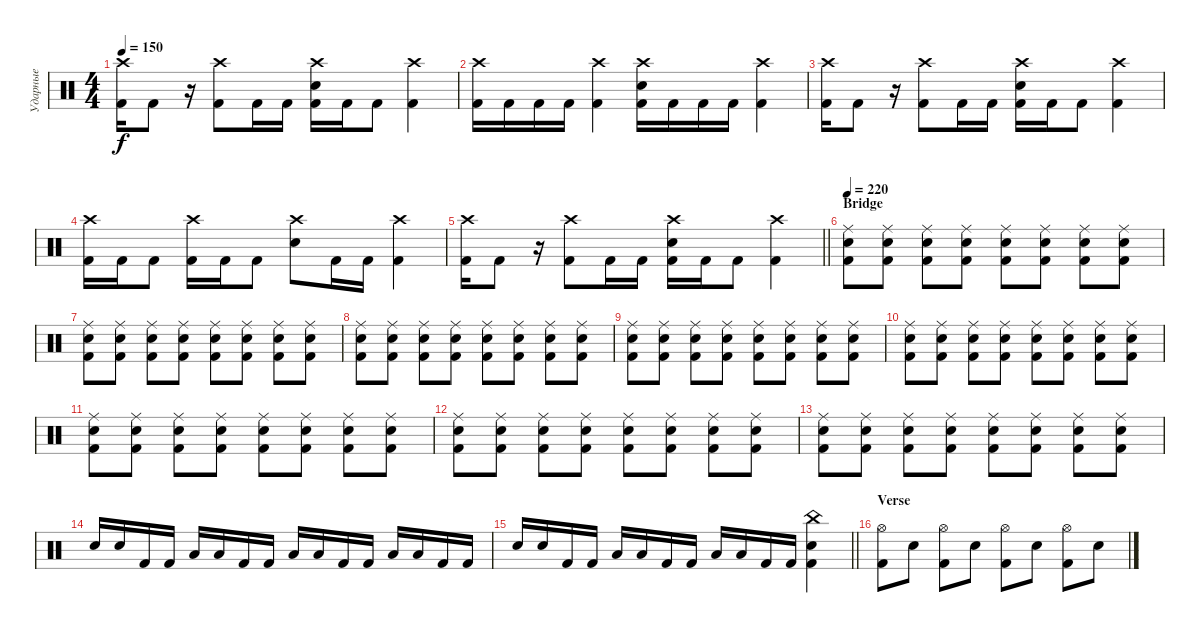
\track ("Ударные" "Ударные") {instrument percussion}
\staff {score}
\articulation defaults
\ts (4 4)
\tempo 150
\clef neutral
\ks c
("Crash high (hit)" "Kick (hit) 2").16{dy f} "Kick (hit) 2".8 r.16 ("Crash high (hit)" "Kick (hit) 2").8 "Kick (hit) 2".16 "Kick (hit) 2".16 ("Crash high (hit)" "Electric Snare (hit)" "Kick (hit) 2").16 "Kick (hit) 2".16 "Kick (hit) 2".8 ("Crash high (hit)" "Kick (hit) 2").4 |
("Crash high (hit)" "Kick (hit) 2").16 "Kick (hit) 2".16 "Kick (hit) 2".16 "Kick (hit) 2".16 ("Crash high (hit)" "Kick (hit) 2").4 ("Crash high (hit)" "Electric Snare (hit)" "Kick (hit) 2").16 "Kick (hit) 2".16 "Kick (hit) 2".16 "Kick (hit) 2".16 ("Crash high (hit)" "Kick (hit) 2").4 |
("Crash high (hit)" "Kick (hit) 2").16 "Kick (hit) 2".8 r.16 ("Crash high (hit)" "Kick (hit) 2").8 "Kick (hit) 2".16 "Kick (hit) 2".16 ("Crash high (hit)" "Electric Snare (hit)" "Kick (hit) 2").16 "Kick (hit) 2".16 "Kick (hit) 2".8 ("Crash high (hit)" "Kick (hit) 2").4 |
("Crash high (hit)" "Kick (hit) 2").16 "Kick (hit) 2".16 "Kick (hit) 2".8 ("Crash high (hit)" "Kick (hit) 2").16 "Kick (hit) 2".16 "Kick (hit) 2".8 ("Crash high (hit)" "Electric Snare (hit)").8 "Kick (hit) 2".16 "Kick (hit) 2".16 ("Crash high (hit)" "Kick (hit) 2").4 |
\barLineRight lightlight
("Crash high (hit)" "Kick (hit) 2").16 "Kick (hit) 2".8 r.16 ("Crash high (hit)" "Kick (hit) 2").8 "Kick (hit) 2".16 "Kick (hit) 2".16 ("Crash high (hit)" "Electric Snare (hit)" "Kick (hit) 2").16 "Kick (hit) 2".16 "Kick (hit) 2".8 ("Crash high (hit)" "Kick (hit) 2").4 |
\section ("" "Bridge")
\tempo 220
("Ride (middle)" "Electric Snare (hit)" "Kick (hit) 2").8 ("Ride (middle)" "Electric Snare (hit)" "Kick (hit) 2").8 ("Ride (middle)" "Electric Snare (hit)" "Kick (hit) 2").8 ("Ride (middle)" "Electric Snare (hit)" "Kick (hit) 2").8 ("Ride (middle)" "Electric Snare (hit)" "Kick (hit) 2").8 ("Ride (middle)" "Electric Snare (hit)" "Kick (hit) 2").8 ("Ride (middle)" "Electric Snare (hit)" "Kick (hit) 2").8 ("Ride (middle)" "Electric Snare (hit)" "Kick (hit) 2").8 |
("Ride (middle)" "Electric Snare (hit)" "Kick (hit) 2").8 ("Ride (middle)" "Electric Snare (hit)" "Kick (hit) 2").8 ("Ride (middle)" "Electric Snare (hit)" "Kick (hit) 2").8 ("Ride (middle)" "Electric Snare (hit)" "Kick (hit) 2").8 ("Ride (middle)" "Electric Snare (hit)" "Kick (hit) 2").8 ("Ride (middle)" "Electric Snare (hit)" "Kick (hit) 2").8 ("Ride (middle)" "Electric Snare (hit)" "Kick (hit) 2").8 ("Ride (middle)" "Electric Snare (hit)" "Kick (hit) 2").8 |
("Ride (middle)" "Electric Snare (hit)" "Kick (hit) 2").8 ("Ride (middle)" "Electric Snare (hit)" "Kick (hit) 2").8 ("Ride (middle)" "Electric Snare (hit)" "Kick (hit) 2").8 ("Ride (middle)" "Electric Snare (hit)" "Kick (hit) 2").8 ("Ride (middle)" "Electric Snare (hit)" "Kick (hit) 2").8 ("Ride (middle)" "Electric Snare (hit)" "Kick (hit) 2").8 ("Ride (middle)" "Electric Snare (hit)" "Kick (hit) 2").8 ("Ride (middle)" "Electric Snare (hit)" "Kick (hit) 2").8 |
("Ride (middle)" "Electric Snare (hit)" "Kick (hit) 2").8 ("Ride (middle)" "Electric Snare (hit)" "Kick (hit) 2").8 ("Ride (middle)" "Electric Snare (hit)" "Kick (hit) 2").8 ("Ride (middle)" "Electric Snare (hit)" "Kick (hit) 2").8 ("Ride (middle)" "Electric Snare (hit)" "Kick (hit) 2").8 ("Ride (middle)" "Electric Snare (hit)" "Kick (hit) 2").8 ("Ride (middle)" "Electric Snare (hit)" "Kick (hit) 2").8 ("Ride (middle)" "Electric Snare (hit)" "Kick (hit) 2").8 |
("Ride (middle)" "Electric Snare (hit)" "Kick (hit) 2").8 ("Ride (middle)" "Electric Snare (hit)" "Kick (hit) 2").8 ("Ride (middle)" "Electric Snare (hit)" "Kick (hit) 2").8 ("Ride (middle)" "Electric Snare (hit)" "Kick (hit) 2").8 ("Ride (middle)" "Electric Snare (hit)" "Kick (hit) 2").8 ("Ride (middle)" "Electric Snare (hit)" "Kick (hit) 2").8 ("Ride (middle)" "Electric Snare (hit)" "Kick (hit) 2").8 ("Ride (middle)" "Electric Snare (hit)" "Kick (hit) 2").8 |
("Ride (middle)" "Electric Snare (hit)" "Kick (hit) 2").8 ("Ride (middle)" "Electric Snare (hit)" "Kick (hit) 2").8 ("Ride (middle)" "Electric Snare (hit)" "Kick (hit) 2").8 ("Ride (middle)" "Electric Snare (hit)" "Kick (hit) 2").8 ("Ride (middle)" "Electric Snare (hit)" "Kick (hit) 2").8 ("Ride (middle)" "Electric Snare (hit)" "Kick (hit) 2").8 ("Ride (middle)" "Electric Snare (hit)" "Kick (hit) 2").8 ("Ride (middle)" "Electric Snare (hit)" "Kick (hit) 2").8 |
("Ride (middle)" "Electric Snare (hit)" "Kick (hit) 2").8 ("Ride (middle)" "Electric Snare (hit)" "Kick (hit) 2").8 ("Ride (middle)" "Electric Snare (hit)" "Kick (hit) 2").8 ("Ride (middle)" "Electric Snare (hit)" "Kick (hit) 2").8 ("Ride (middle)" "Electric Snare (hit)" "Kick (hit) 2").8 ("Ride (middle)" "Electric Snare (hit)" "Kick (hit) 2").8 ("Ride (middle)" "Electric Snare (hit)" "Kick (hit) 2").8 ("Ride (middle)" "Electric Snare (hit)" "Kick (hit) 2").8 |
("Ride (middle)" "Electric Snare (hit)" "Kick (hit) 2").8 ("Ride (middle)" "Electric Snare (hit)" "Kick (hit) 2").8 ("Ride (middle)" "Electric Snare (hit)" "Kick (hit) 2").8 ("Ride (middle)" "Electric Snare (hit)" "Kick (hit) 2").8 ("Ride (middle)" "Electric Snare (hit)" "Kick (hit) 2").8 ("Ride (middle)" "Electric Snare (hit)" "Kick (hit) 2").8 ("Ride (middle)" "Electric Snare (hit)" "Kick (hit) 2").8 ("Ride (middle)" "Electric Snare (hit)" "Kick (hit) 2").8 |
"Electric Snare (hit)".16 "Electric Snare (hit)".16 "Kick (hit) 2".16 "Kick (hit) 2".16 "Low Tom (hit)".16 "Low Tom (hit)".16 "Kick (hit) 2".16 "Kick (hit) 2".16 "Low Tom (hit)".16 "Low Floor Tom (hit)".16 "Kick (hit) 2".16 "Kick (hit) 2".16 "Low Floor Tom (hit)".16 "Low Floor Tom (hit)".16 "Kick (hit) 2".16 "Kick (hit) 2".16 |
\barLineRight lightlight "Electric Snare (hit)".16 "Electric Snare (hit)".16 "Kick (hit) 2".16 "Kick (hit) 2".16 "Low Tom (hit)".16 "Low Tom (hit)".16 "Kick (hit) 2".16 "Kick (hit) 2".16 "Low Tom (hit)".16 "Low Floor Tom (hit)".16 "Kick (hit) 2".16 "Kick (hit) 2".16
("China (hit)" "Electric Snare (hit)" "Kick (hit) 2").4 |
\section ("" "Verse")
("Hi-Hat (open)" "Kick (hit) 2").8 "Electric Snare (hit)".8 ("Hi-Hat (open)" "Kick (hit) 2").8 "Electric Snare (hit)".8 ("Hi-Hat (open)" "Kick (hit) 2").8 "Electric Snare (hit)".8 ("Hi-Hat (open)" "Kick (hit) 2").8 "Electric Snare (hit)".8
